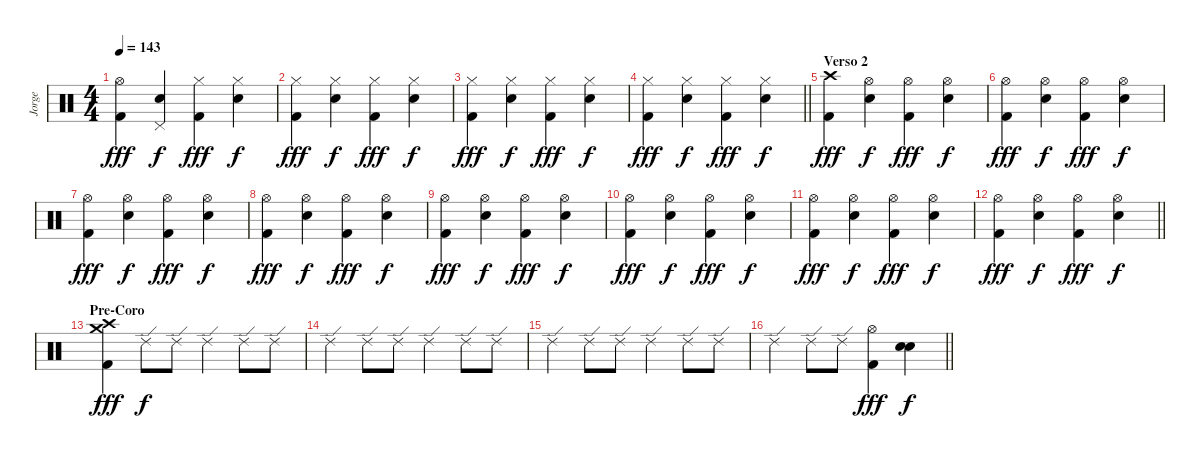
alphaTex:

\track ("Jorge" "Jorge") {instrument percussion}
\staff {score}
\articulation defaults
\ts (4 4)
\tempo 143
\clef neutral
\ks c
("Hi-Hat (open)" "Kick (hit) 2").4{dy fff} ("Pedal Hi-Hat (hit)" "Electric Snare (hit)").4{dy f} ("Hi-Hat (closed)" "Kick (hit) 2").4{dy fff} ("Hi-Hat (closed)" "Electric Snare (hit)").4{dy f} |
("Hi-Hat (closed)" "Kick (hit) 2").4{dy fff} ("Hi-Hat (closed)" "Electric Snare (hit)").4{dy f} ("Hi-Hat (closed)" "Kick (hit) 2").4{dy fff} ("Hi-Hat (closed)" "Electric Snare (hit)").4{dy f} |
("Hi-Hat (closed)" "Kick (hit) 2").4{dy fff} ("Hi-Hat (closed)" "Electric Snare (hit)").4{dy f} ("Hi-Hat (closed)" "Kick (hit) 2").4{dy fff} ("Hi-Hat (closed)" "Electric Snare (hit)").4{dy f} |
\barLineRight lightlight
("Hi-Hat (closed)" "Kick (hit) 2").4{dy fff} ("Hi-Hat (closed)" "Electric Snare (hit)").4{dy f} ("Hi-Hat (closed)" "Kick (hit) 2").4{dy fff} ("Hi-Hat (closed)" "Electric Snare (hit)").4{dy f} |
\section ("" "Verso 2")
("Crash high (hit)" "Kick (hit) 2").4{dy fff} ("Hi-Hat (open)" "Electric Snare (hit)").4{dy f} ("Hi-Hat (open)" "Kick (hit) 2").4{dy fff} ("Hi-Hat (open)" "Electric Snare (hit)").4{dy f} |
("Hi-Hat (open)" "Kick (hit) 2").4{dy fff} ("Hi-Hat (open)" "Electric Snare (hit)").4{dy f} ("Hi-Hat (open)" "Kick (hit) 2").4{dy fff} ("Hi-Hat (open)" "Electric Snare (hit)").4{dy f} |
("Hi-Hat (open)" "Kick (hit) 2").4{dy fff} ("Hi-Hat (open)" "Electric Snare (hit)").4{dy f} ("Hi-Hat (open)" "Kick (hit) 2").4{dy fff} ("Hi-Hat (open)" "Electric Snare (hit)").4{dy f} |
("Hi-Hat (open)" "Kick (hit) 2").4{dy fff} ("Hi-Hat (open)" "Electric Snare (hit)").4{dy f} ("Hi-Hat (open)" "Kick (hit) 2").4{dy fff} ("Hi-Hat (open)" "Electric Snare (hit)").4{dy f} |
("Hi-Hat (open)" "Kick (hit) 2").4{dy fff} ("Hi-Hat (open)" "Electric Snare (hit)").4{dy f} ("Hi-Hat (open)" "Kick (hit) 2").4{dy fff} ("Hi-Hat (open)" "Electric Snare (hit)").4{dy f} |
("Hi-Hat (open)" "Kick (hit) 2").4{dy fff} ("Hi-Hat (open)" "Electric Snare (hit)").4{dy f} ("Hi-Hat (open)" "Kick (hit) 2").4{dy fff} ("Hi-Hat (open)" "Electric Snare (hit)").4{dy f} |
("Hi-Hat (open)" "Kick (hit) 2").4{dy fff} ("Hi-Hat (open)" "Electric Snare (hit)").4{dy f} ("Hi-Hat (open)" "Kick (hit) 2").4{dy fff} ("Hi-Hat (open)" "Electric Snare (hit)").4{dy f} |
\barLineRight lightlight
("Hi-Hat (open)" "Kick (hit) 2").4{dy fff} ("Hi-Hat (open)" "Electric Snare (hit)").4{dy f} ("Hi-Hat (open)" "Kick (hit) 2").4{dy fff} ("Hi-Hat (open)" "Electric Snare (hit)").4{dy f} |
\section ("" "Pre-Coro")
("Crash high (hit)" "Crash medium (hit)" "Kick (hit) 2").4{dy fff} "Ride (edge) 2".8{dy f} "Ride (edge) 2".8 "Ride (edge) 2".4 "Ride (edge) 2".8 "Ride (edge) 2".8 |
"Ride (edge) 2".4 "Ride (edge) 2".8 "Ride (edge) 2".8 "Ride (edge) 2".4 "Ride (edge) 2".8 "Ride (edge) 2".8 |
"Ride (edge) 2".4 "Ride (edge) 2".8 "Ride (edge) 2".8 "Ride (edge) 2".4 "Ride (edge) 2".8 "Ride (edge) 2".8 |
\barLineRight lightlight "Ride (edge) 2".4 "Ride (edge) 2".8 "Ride (edge) 2".8
("Hi-Hat (open)" "Kick (hit) 2").4{dy fff} ("Electric Snare (hit)" "Electric Snare (hit)").4{bd 240 dy f}
